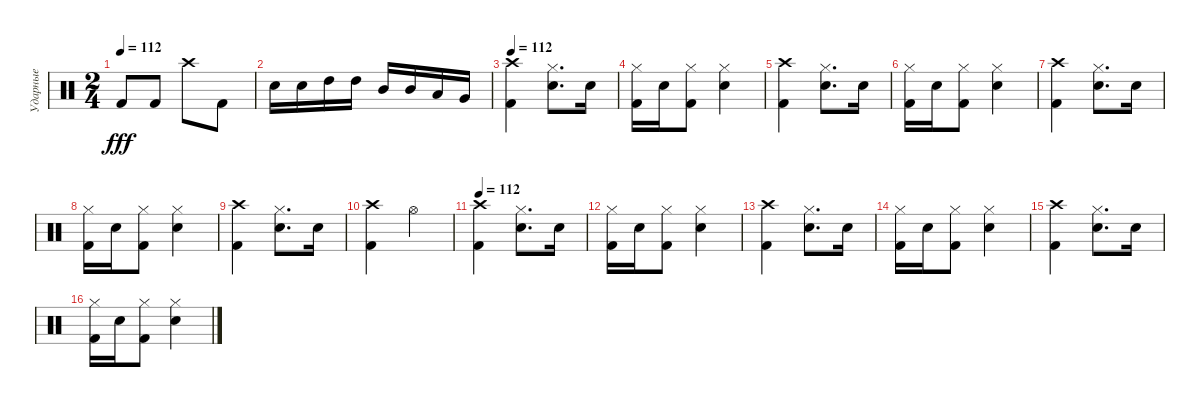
\track ("Ударные" "Ударные") {instrument percussion}
\staff {score}
\articulation defaults
\ts (2 4)
\tempo 112
\clef neutral
\ks c "Kick (hit) 2".8{dy fff} "Kick (hit) 2".8 "Crash high (hit)".8 "Kick (hit) 2".8
|
"Electric Snare (hit)".16 "Electric Snare (hit)".16 "High Tom (hit)".16 "High Tom (hit)".16 "Mid Tom (hit)".16 "Mid Tom (hit)".16 "Low Tom (hit)".16 "Very Low Tom (hit)".16 |
\tempo 112
("Kick (hit) 2" "Crash high (hit)").4 ("Hi-Hat (closed)" "Electric Snare (hit)").8{d} "Electric Snare (hit)".16 |
("Kick (hit) 2" "Hi-Hat (closed)").16 "Electric Snare (hit)".16 ("Kick (hit) 2" "Hi-Hat (closed)").8 ("Electric Snare (hit)" "Hi-Hat (closed)").4 |
("Kick (hit) 2" "Crash high (hit)").4 ("Electric Snare (hit)" "Hi-Hat (closed)").8{d} "Electric Snare (hit)".16 |
("Kick (hit) 2" "Hi-Hat (closed)").16 "Electric Snare (hit)".16 ("Kick (hit) 2" "Hi-Hat (closed)").8 ("Electric Snare (hit)" "Hi-Hat (closed)").4 |
("Kick (hit) 2" "Crash high (hit)").4 ("Hi-Hat (closed)" "Electric Snare (hit)").8{d} "Electric Snare (hit)".16 |
("Kick (hit) 2" "Hi-Hat (closed)").16 "Electric Snare (hit)".16 ("Kick (hit) 2" "Hi-Hat (closed)").8 ("Electric Snare (hit)" "Hi-Hat (closed)").4 |
("Kick (hit) 2" "Crash high (hit)").4 ("Hi-Hat (closed)" "Electric Snare (hit)").8{d} "Electric Snare (hit)".16 |
("Kick (hit) 2" "Crash high (hit)").4 "Hi-Hat (open)".4 |
\tempo 112
("Kick (hit) 2" "Crash high (hit)").4 ("Hi-Hat (closed)" "Electric Snare (hit)").8{d} "Electric Snare (hit)".16 |
("Kick (hit) 2" "Hi-Hat (closed)").16 "Electric Snare (hit)".16 ("Kick (hit) 2" "Hi-Hat (closed)").8 ("Electric Snare (hit)" "Hi-Hat (closed)").4 |
("Kick (hit) 2" "Crash high (hit)").4 ("Electric Snare (hit)" "Hi-Hat (closed)").8{d} "Electric Snare (hit)".16 |
("Kick (hit) 2" "Hi-Hat (closed)").16 "Electric Snare (hit)".16 ("Kick (hit) 2" "Hi-Hat (closed)").8 ("Electric Snare (hit)" "Hi-Hat (closed)").4 |
("Kick (hit) 2" "Crash high (hit)").4 ("Hi-Hat (closed)" "Electric Snare (hit)").8{d} "Electric Snare (hit)".16 |
("Kick (hit) 2" "Hi-Hat (closed)").16 "Electric Snare (hit)".16 ("Kick (hit) 2" "Hi-Hat (closed)").8 ("Electric Snare (hit)" "Hi-Hat (closed)").4
